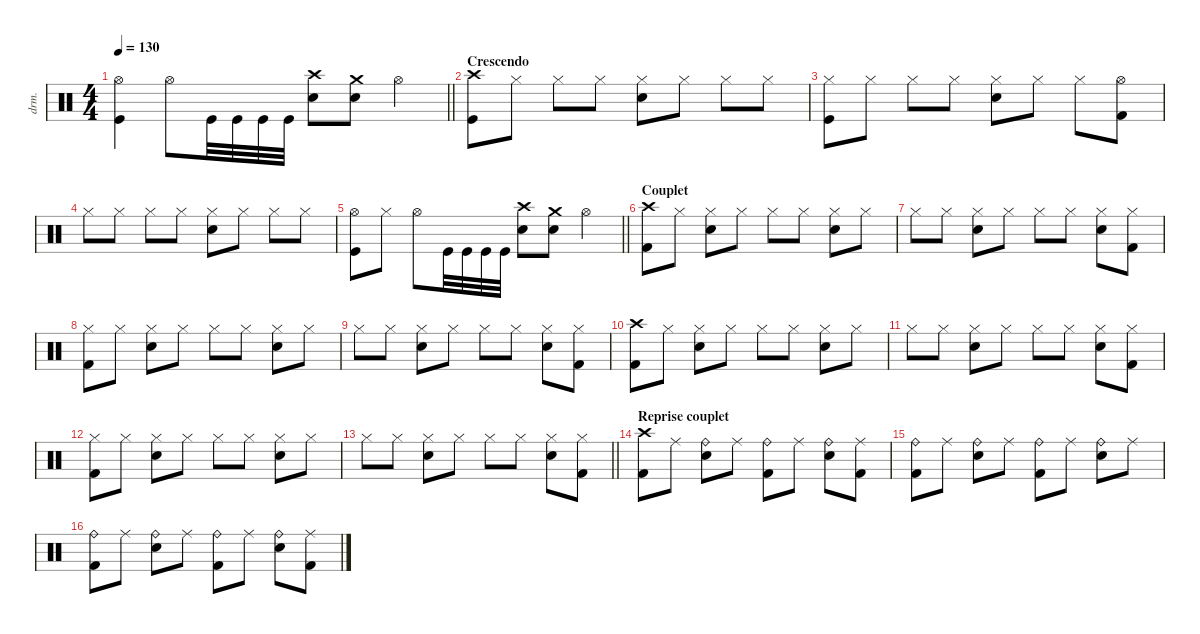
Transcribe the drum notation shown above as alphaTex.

\defaultSystemsLayout 4
\hideDynamics
\bracketExtendMode nobrackets
\track ("Manouche" "drm.") {instrument percussion}
\staff {score}
\articulation defaults
\ts (4 4)
\tempo 130
\clef neutral
\barLineRight lightlight
\ks c
("Hi-Hat (open)" "Kick (hit)").4{dy f beam Down} "Hi-Hat (open)".8{beam Down} "Kick (hit)".32{beam Down} "Kick (hit)".32{beam Down} "Kick (hit)".32{beam Down} "Kick (hit)".32{beam Down} ("Snare (hit) 2" "Crash high (hit)").8{beam Down} ("Crash medium (hit)" "Snare (hit) 2").8{beam Down} "Hi-Hat (open)".4{beam Down} |
\section ("" "Crescendo")
("Crash high (hit)" "Kick (hit)").8{dy mp beam Down} "Hi-Hat (closed)".8{beam Down} "Hi-Hat (closed)".8{beam Down} "Hi-Hat (closed)".8{beam Down} ("Hi-Hat (closed)" "Snare (hit) 2").8{beam Down} "Hi-Hat (closed)".8{beam Down} "Hi-Hat (closed)".8{beam Down} "Hi-Hat (closed)".8{beam Down} |
("Hi-Hat (closed)" "Kick (hit)").8{beam Down} "Hi-Hat (closed)".8{beam Down} "Hi-Hat (closed)".8{beam Down} "Hi-Hat (closed)".8{beam Down} ("Hi-Hat (closed)" "Snare (hit) 2").8{beam Down} "Hi-Hat (closed)".8{beam Down} "Hi-Hat (closed)".8{beam Down} ("Hi-Hat (open)" "Kick (hit) 2").8{beam Down} |
"Hi-Hat (closed)".8{dy mf beam Down} "Hi-Hat (closed)".8{dy mp beam Down} "Hi-Hat (closed)".8{beam Down} "Hi-Hat (closed)".8{beam Down} ("Hi-Hat (closed)" "Snare (hit) 2").8{beam Down} "Hi-Hat (closed)".8{beam Down} "Hi-Hat (closed)".8{beam Down} "Hi-Hat (closed)".8{beam Down} |
\barLineRight lightlight
("Kick (hit)" "Hi-Hat (open)").8{dy f beam Down} "Hi-Hat (closed)".8{beam Down} "Hi-Hat (open)".8{beam Down} "Kick (hit)".32{beam Down} "Kick (hit)".32{beam Down} "Kick (hit)".32{beam Down} "Kick (hit)".32{beam Down} ("Snare (hit) 2" "Crash high (hit)").8{beam Down} ("Crash medium (hit)" "Snare (hit) 2").8{beam Down} "Hi-Hat (open)".4{beam Down} |
\section ("" "Couplet")
("Crash high (hit)" "Kick (hit) 2").8{beam Down} "Hi-Hat (closed)".8{dy mp beam Down} ("Hi-Hat (closed)" "Snare (hit) 2").8{dy f beam Down} "Hi-Hat (closed)".8{dy mp beam Down} "Hi-Hat (closed)".8{dy f beam Down} "Hi-Hat (closed)".8{dy mp beam Down} ("Hi-Hat (closed)" "Snare (hit) 2").8{dy f beam Down} "Hi-Hat (closed)".8{dy mp beam Down} |
"Hi-Hat (closed)".8{dy f beam Down} "Hi-Hat (closed)".8{dy mp beam Down} ("Hi-Hat (closed)" "Snare (hit) 2").8{dy f beam Down} "Hi-Hat (closed)".8{dy mp beam Down} "Hi-Hat (closed)".8{dy f beam Down} "Hi-Hat (closed)".8{dy mp beam Down} ("Hi-Hat (closed)" "Snare (hit) 2").8{dy f beam Down} ("Hi-Hat (closed)" "Kick (hit) 2").8{dy mp beam Down} |
("Hi-Hat (closed)" "Kick (hit) 2").8{beam Down} "Hi-Hat (closed)".8{beam Down} ("Hi-Hat (closed)" "Snare (hit) 2").8{dy f beam Down} "Hi-Hat (closed)".8{dy mp beam Down} "Hi-Hat (closed)".8{dy f beam Down} "Hi-Hat (closed)".8{dy mp beam Down} ("Hi-Hat (closed)" "Snare (hit) 2").8{dy f beam Down} "Hi-Hat (closed)".8{dy mp beam Down} |
"Hi-Hat (closed)".8{dy f beam Down} "Hi-Hat (closed)".8{dy mp beam Down} ("Hi-Hat (closed)" "Snare (hit) 2").8{dy f beam Down} "Hi-Hat (closed)".8{dy mp beam Down} "Hi-Hat (closed)".8{dy f beam Down} "Hi-Hat (closed)".8{dy mp beam Down} ("Hi-Hat (closed)" "Snare (hit) 2").8{dy f beam Down} ("Hi-Hat (closed)" "Kick (hit) 2").8{dy mp beam Down} |
("Crash high (hit)" "Kick (hit) 2").8{dy f beam Down} "Hi-Hat (closed)".8{dy mp beam Down} ("Hi-Hat (closed)" "Snare (hit) 2").8{dy f beam Down} "Hi-Hat (closed)".8{dy mp beam Down} "Hi-Hat (closed)".8{dy f beam Down} "Hi-Hat (closed)".8{dy mp beam Down} ("Hi-Hat (closed)" "Snare (hit) 2").8{dy f beam Down} "Hi-Hat (closed)".8{dy mp beam Down} |
"Hi-Hat (closed)".8{dy f beam Down} "Hi-Hat (closed)".8{dy mp beam Down} ("Hi-Hat (closed)" "Snare (hit) 2").8{dy f beam Down} "Hi-Hat (closed)".8{dy mp beam Down} "Hi-Hat (closed)".8{dy f beam Down} "Hi-Hat (closed)".8{dy mp beam Down} ("Hi-Hat (closed)" "Snare (hit) 2").8{dy f beam Down} ("Hi-Hat (closed)" "Kick (hit) 2").8{dy mp beam Down} |
("Hi-Hat (closed)" "Kick (hit) 2").8{beam Down} "Hi-Hat (closed)".8{beam Down} ("Hi-Hat (closed)" "Snare (hit) 2").8{dy f beam Down} "Hi-Hat (closed)".8{dy mp beam Down} "Hi-Hat (closed)".8{dy f beam Down} "Hi-Hat (closed)".8{dy mp beam Down} ("Hi-Hat (closed)" "Snare (hit) 2").8{dy f beam Down} "Hi-Hat (closed)".8{dy mp beam Down} |
\barLineRight lightlight "Hi-Hat (closed)".8{dy f beam Down} "Hi-Hat (closed)".8{dy mp beam Down}
("Hi-Hat (closed)" "Snare (hit) 2").8{dy f beam Down} "Hi-Hat (closed)".8{dy mp beam Down} "Hi-Hat (closed)".8{dy f beam Down} "Hi-Hat (closed)".8{dy mp beam Down} ("Hi-Hat (closed)" "Snare (hit) 2").8{dy f beam Down} ("Hi-Hat (closed)" "Kick (hit) 2").8{dy mp beam Down} |
\section ("" "Reprise couplet")
("Crash high (hit)" "Kick (hit) 2").8{dy f beam Down} "Ride (middle)".8{dy mf beam Down} ("Ride (bell)" "Snare (hit) 2").8{dy f beam Down} "Ride (middle)".8{dy mf beam Down} ("Ride (bell)" "Kick (hit) 2").8{dy f beam Down} "Ride (middle)".8{dy mf beam Down} ("Ride (bell)" "Snare (hit) 2").8{dy f beam Down} ("Ride (middle)" "Kick (hit) 2").8{dy mf beam Down} |
("Ride (bell)" "Kick (hit) 2").8{dy f beam Down} "Ride (middle)".8{dy mf beam Down} ("Ride (bell)" "Snare (hit) 2").8{dy f beam Down} "Ride (middle)".8{dy mf beam Down} ("Ride (bell)" "Kick (hit) 2").8{dy f beam Down} "Ride (middle)".8{dy mf beam Down} ("Ride (bell)" "Snare (hit) 2").8{dy f beam Down} "Ride (middle)".8{dy mf beam Down} |
("Ride (bell)" "Kick (hit) 2").8{dy f beam Down} "Ride (middle)".8{dy mf beam Down} ("Ride (bell)" "Snare (hit) 2").8{dy f beam Down} "Ride (middle)".8{dy mf beam Down} ("Ride (bell)" "Kick (hit) 2").8{dy f beam Down} "Ride (middle)".8{dy mf beam Down} ("Ride (bell)" "Snare (hit) 2").8{dy f beam Down} ("Ride (middle)" "Kick (hit) 2").8{dy mf beam Down}
